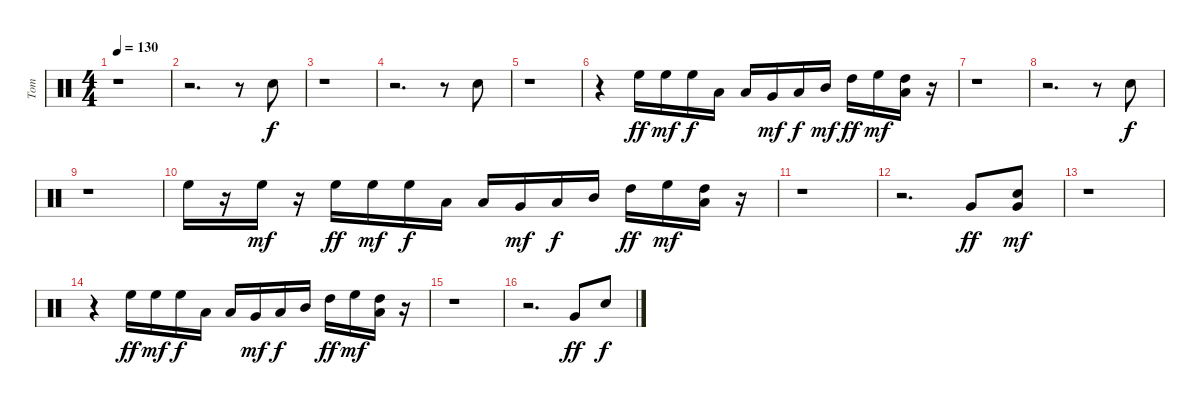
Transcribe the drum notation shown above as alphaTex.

\track ("Tom" "Tom") {instrument percussion}
\staff {score}
\articulation defaults
\ts (4 4)
\tempo 130
\clef neutral
\ks c
r.1{dy f} |
r.2{d} r.8 "Electric Snare (hit)".8 |
r.1 |
r.2{d} r.8 "Electric Snare (hit)".8 |
r.1 |
r.4 "High Floor Tom (hit)".16{dy ff} "High Floor Tom (hit)".16{dy mf} "High Floor Tom (hit)".16{dy f} "Low Floor Tom (hit)".16 "Low Floor Tom (hit)".16 "Very Low Tom (hit)".16{dy mf} "Low Tom (hit)".16{dy f} "Mid Tom (hit)".16{dy mf} "High Tom (hit)".16{dy ff} "High Floor Tom (hit)".16{dy mf} ("High Tom (hit)" "Low Floor Tom (hit)").16 r.16 |
r.1 |
r.2{d} r.8 "Electric Snare (hit)".8{dy f} |
r.1 |
"High Floor Tom (hit)".16 r.16 "High Floor Tom (hit)".16{dy mf} r.16 "High Floor Tom (hit)".16{dy ff} "High Floor Tom (hit)".16{dy mf} "High Floor Tom (hit)".16{dy f} "Low Floor Tom (hit)".16 "Low Floor Tom (hit)".16 "Very Low Tom (hit)".16{dy mf} "Low Tom (hit)".16{dy f} "Mid Tom (hit)".16 "High Tom (hit)".16{dy ff} "High Floor Tom (hit)".16{dy mf} ("High Tom (hit)" "Low Floor Tom (hit)").16 r.16 |
r.1 |
r.2{d} "Very Low Tom (hit)".8{dy ff} ("Very Low Tom (hit)" "Electric Snare (hit)").8{dy mf} |
r.1 |
r.4 "High Floor Tom (hit)".16{dy ff} "High Floor Tom (hit)".16{dy mf} "High Floor Tom (hit)".16{dy f} "Low Floor Tom (hit)".16 "Low Floor Tom (hit)".16 "Very Low Tom (hit)".16{dy mf} "Low Tom (hit)".16{dy f} "Mid Tom (hit)".16 "High Tom (hit)".16{dy ff} "High Floor Tom (hit)".16{dy mf} ("High Tom (hit)" "Low Floor Tom (hit)").16 r.16 |
r.1 |
r.2{d} "Very Low Tom (hit)".8{dy ff} "Electric Snare (hit)".8{dy f}
